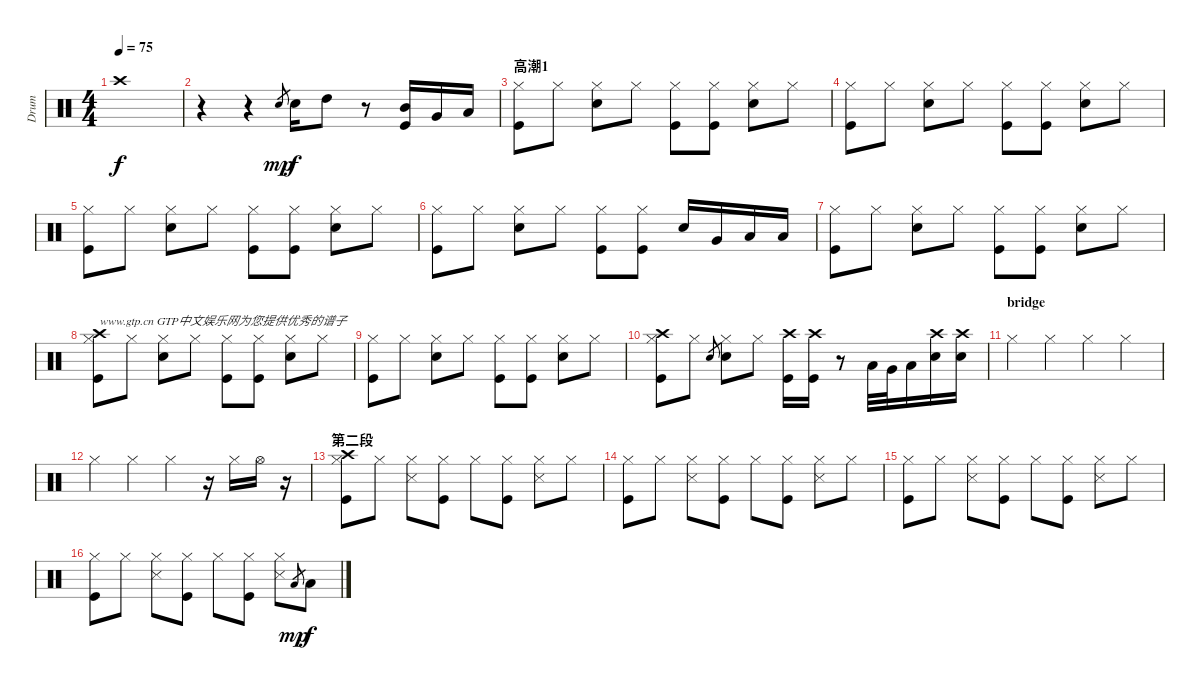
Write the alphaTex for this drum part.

\track ("Drum" "Drum") {instrument percussion}
\staff {score}
\articulation defaults
\ts (4 4)
\tempo 75
\clef neutral
\ks c "Crash high (hit)".1{dy f volume 12}
|
r.4 r.4 "Electric Snare (hit)".8{gr dy mp} "Electric Snare (hit)".16{dy f} "High Tom (hit)".8 r.8 ("Mid Tom (hit)" "Kick (hit)").16 "Very Low Tom (hit)".16 "Low Floor Tom (hit)".16 |
\section ("" "高潮1")
("Hi-Hat (closed)" "Kick (hit)").8 "Hi-Hat (closed)".8 ("Hi-Hat (closed)" "Electric Snare (hit)").8 "Hi-Hat (closed)".8 ("Hi-Hat (closed)" "Kick (hit)").8 ("Hi-Hat (closed)" "Kick (hit)").8 ("Hi-Hat (closed)" "Electric Snare (hit)").8 "Hi-Hat (closed)".8 |
("Hi-Hat (closed)" "Kick (hit)").8 "Hi-Hat (closed)".8 ("Hi-Hat (closed)" "Electric Snare (hit)").8 "Hi-Hat (closed)".8 ("Hi-Hat (closed)" "Kick (hit)").8 ("Hi-Hat (closed)" "Kick (hit)").8 ("Hi-Hat (closed)" "Electric Snare (hit)").8 "Hi-Hat (closed)".8 |
("Hi-Hat (closed)" "Kick (hit)").8 "Hi-Hat (closed)".8 ("Hi-Hat (closed)" "Electric Snare (hit)").8 "Hi-Hat (closed)".8 ("Hi-Hat (closed)" "Kick (hit)").8 ("Hi-Hat (closed)" "Kick (hit)").8 ("Hi-Hat (closed)" "Electric Snare (hit)").8 "Hi-Hat (closed)".8 |
("Hi-Hat (closed)" "Kick (hit)").8 "Hi-Hat (closed)".8 ("Hi-Hat (closed)" "Electric Snare (hit)").8 "Hi-Hat (closed)".8 ("Hi-Hat (closed)" "Kick (hit)").8 ("Hi-Hat (closed)" "Kick (hit)").8 "Electric Snare (hit)".16 "Very Low Tom (hit)".16 "Low Floor Tom (hit)".16 "Low Floor Tom (hit)".16 |
("Hi-Hat (closed)" "Kick (hit)").8 "Hi-Hat (closed)".8 ("Hi-Hat (closed)" "Electric Snare (hit)").8 "Hi-Hat (closed)".8 ("Hi-Hat (closed)" "Kick (hit)").8 ("Hi-Hat (closed)" "Kick (hit)").8 ("Hi-Hat (closed)" "Electric Snare (hit)").8 "Hi-Hat (closed)".8 |
("Hi-Hat (closed)" "Crash high (hit)" "Kick (hit)").8{txt "www.gtp.cn GTP中文娱乐网为您提供优秀的谱子"} "Hi-Hat (closed)".8 ("Hi-Hat (closed)" "Electric Snare (hit)").8 "Hi-Hat (closed)".8 ("Hi-Hat (closed)" "Kick (hit)").8 ("Hi-Hat (closed)" "Kick (hit)").8 ("Hi-Hat (closed)" "Electric Snare (hit)").8 "Hi-Hat (closed)".8 |
("Hi-Hat (closed)" "Kick (hit)").8 "Hi-Hat (closed)".8 ("Hi-Hat (closed)" "Electric Snare (hit)").8 "Hi-Hat (closed)".8 ("Hi-Hat (closed)" "Kick (hit)").8 ("Hi-Hat (closed)" "Kick (hit)").8 ("Hi-Hat (closed)" "Electric Snare (hit)").8 "Hi-Hat (closed)".8 |
("Hi-Hat (closed)" "Crash high (hit)" "Kick (hit)").8 "Hi-Hat (closed)".8 "Electric Snare (hit)".8{gr} ("Hi-Hat (closed)" "Electric Snare (hit)").8 "Hi-Hat (closed)".8 ("Crash high (hit)" "Kick (hit)").16 ("Crash high (hit)" "Kick (hit)").16 r.8 "Low Tom (hit)".32 "Very Low Tom (hit)".32 "Low Floor Tom (hit)".16 ("Electric Snare (hit)" "Crash high (hit)").16 ("Electric Snare (hit)" "Crash high (hit)").16 |
\section ("" "bridge")
"Hi-Hat (closed)".4 "Hi-Hat (closed)".4 "Hi-Hat (closed)".4 "Hi-Hat (closed)".4 |
"Hi-Hat (closed)".4 "Hi-Hat (closed)".4 "Hi-Hat (closed)".4 r.16 "Hi-Hat (closed)".16 "Hi-Hat (open)".16 r.16 |
\section ("" "第二段")
("Hi-Hat (closed)" "Crash high (hit)" "Kick (hit)").8 "Hi-Hat (closed)".8 ("Hi-Hat (closed)" "Snare (side stick) 3").8 ("Hi-Hat (closed)" "Kick (hit)").8 "Hi-Hat (closed)".8 ("Hi-Hat (closed)" "Kick (hit)").8 ("Hi-Hat (closed)" "Snare (side stick) 3").8 "Hi-Hat (closed)".8 |
("Hi-Hat (closed)" "Kick (hit)").8 "Hi-Hat (closed)".8 ("Hi-Hat (closed)" "Snare (side stick) 3").8 ("Hi-Hat (closed)" "Kick (hit)").8 "Hi-Hat (closed)".8 ("Hi-Hat (closed)" "Kick (hit)").8 ("Hi-Hat (closed)" "Snare (side stick) 3").8 "Hi-Hat (closed)".8 |
("Hi-Hat (closed)" "Kick (hit)").8 "Hi-Hat (closed)".8 ("Hi-Hat (closed)" "Snare (side stick) 3").8 ("Hi-Hat (closed)" "Kick (hit)").8 "Hi-Hat (closed)".8 ("Hi-Hat (closed)" "Kick (hit)").8 ("Hi-Hat (closed)" "Snare (side stick) 3").8 "Hi-Hat (closed)".8 |
("Hi-Hat (closed)" "Kick (hit)").8 "Hi-Hat (closed)".8 ("Hi-Hat (closed)" "Snare (side stick) 3").8 ("Hi-Hat (closed)" "Kick (hit)").8 "Hi-Hat (closed)".8 ("Hi-Hat (closed)" "Kick (hit)").8 ("Hi-Hat (closed)" "Snare (side stick) 3").8 "Low Floor Tom (hit)".8{gr dy mp} "Low Floor Tom (hit)".8{dy f}
